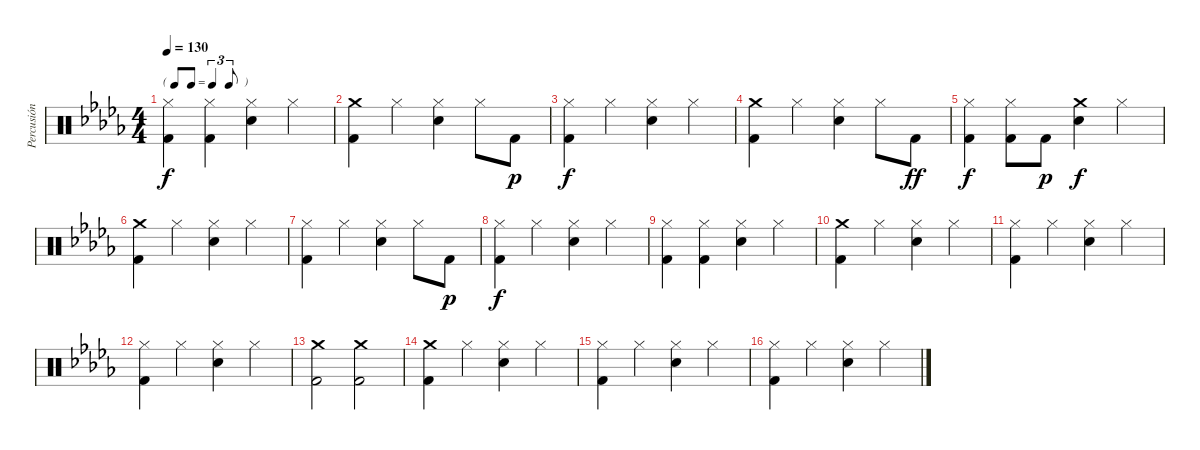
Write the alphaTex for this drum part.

\track ("Percusión" "Percusión") {instrument percussion}
\staff {score}
\articulation defaults
\ts (4 4)
\tf triplet8th
\tempo 130
\clef neutral
\ks db
("Hi-Hat (closed)" "Kick (hit) 2").4{dy f} ("Hi-Hat (closed)" "Kick (hit) 2").4 ("Hi-Hat (closed)" "Snare (hit) 2").4 "Hi-Hat (closed)".4 |
("Crash medium (hit)" "Kick (hit) 2").4 "Hi-Hat (closed)".4 ("Hi-Hat (closed)" "Snare (hit) 2").4 "Hi-Hat (closed)".8 "Kick (hit) 2".8{dy p} |
("Hi-Hat (closed)" "Kick (hit) 2").4{dy f} "Hi-Hat (closed)".4 ("Hi-Hat (closed)" "Snare (hit) 2").4 "Hi-Hat (closed)".4 |
("Crash medium (hit)" "Kick (hit) 2").4 "Hi-Hat (closed)".4 ("Hi-Hat (closed)" "Snare (hit) 2").4 "Hi-Hat (closed)".8 "Kick (hit) 2".8{dy ff} |
("Hi-Hat (closed)" "Kick (hit) 2").4{dy f} ("Hi-Hat (closed)" "Kick (hit) 2").8 "Kick (hit) 2".8{dy p} ("Crash medium (hit)" "Snare (hit) 2").4{dy f} "Hi-Hat (closed)".4 |
("Crash medium (hit)" "Kick (hit) 2").4 "Hi-Hat (closed)".4 ("Hi-Hat (closed)" "Snare (hit) 2").4 "Hi-Hat (closed)".4 |
("Hi-Hat (closed)" "Kick (hit) 2").4 "Hi-Hat (closed)".4 ("Hi-Hat (closed)" "Snare (hit) 2").4 "Hi-Hat (closed)".8 "Kick (hit) 2".8{dy p} |
("Hi-Hat (closed)" "Kick (hit) 2").4{dy f} "Hi-Hat (closed)".4 ("Hi-Hat (closed)" "Snare (hit) 2").4 "Hi-Hat (closed)".4 |
("Hi-Hat (closed)" "Kick (hit) 2").4 ("Hi-Hat (closed)" "Kick (hit) 2").4 ("Hi-Hat (closed)" "Snare (hit) 2").4 "Hi-Hat (closed)".4 |
("Crash medium (hit)" "Kick (hit) 2").4 "Hi-Hat (closed)".4 ("Hi-Hat (closed)" "Snare (hit) 2").4 "Hi-Hat (closed)".4 |
("Hi-Hat (closed)" "Kick (hit) 2").4 "Hi-Hat (closed)".4 ("Hi-Hat (closed)" "Snare (hit) 2").4 "Hi-Hat (closed)".4 |
("Hi-Hat (closed)" "Kick (hit) 2").4 "Hi-Hat (closed)".4 ("Hi-Hat (closed)" "Snare (hit) 2").4 "Hi-Hat (closed)".4 |
("Crash medium (hit)" "Kick (hit) 2").2 ("Crash medium (hit)" "Kick (hit) 2").2 |
("Crash medium (hit)" "Kick (hit) 2").4 "Hi-Hat (closed)".4 ("Hi-Hat (closed)" "Snare (hit) 2").4 "Hi-Hat (closed)".4 |
("Hi-Hat (closed)" "Kick (hit) 2").4 "Hi-Hat (closed)".4 ("Hi-Hat (closed)" "Snare (hit) 2").4 "Hi-Hat (closed)".4 |
("Hi-Hat (closed)" "Kick (hit) 2").4 "Hi-Hat (closed)".4 ("Hi-Hat (closed)" "Snare (hit) 2").4 "Hi-Hat (closed)".4
